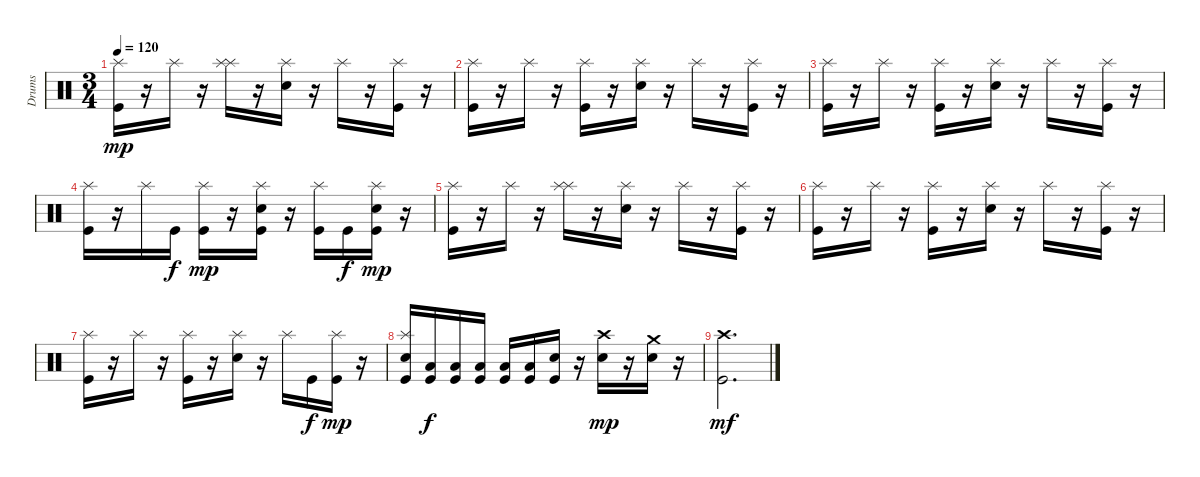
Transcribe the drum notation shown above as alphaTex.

\track ("Drums" "Drums") {instrument percussion}
\staff {score}
\articulation defaults
\ts (3 4)
\tempo 120
\clef neutral
\ks c
("Kick (hit)" "Splash (hit)").16{dy mp} r.16 "Splash (hit)".16 r.16 ("Splash (hit)" "Splash (hit)").16 r.16 ("Splash (hit)" "Snare (hit) 2").16 r.16 "Splash (hit)".16 r.16 ("Kick (hit)" "Splash (hit)").16 r.16 |
("Kick (hit)" "Splash (hit)").16 r.16 "Splash (hit)".16 r.16 ("Kick (hit)" "Splash (hit)").16 r.16 ("Splash (hit)" "Snare (hit) 2").16 r.16 "Splash (hit)".16 r.16 ("Kick (hit)" "Splash (hit)").16 r.16 |
("Kick (hit)" "Splash (hit)").16 r.16 "Splash (hit)".16 r.16 ("Kick (hit)" "Splash (hit)").16 r.16 ("Splash (hit)" "Snare (hit) 2").16 r.16 "Splash (hit)".16 r.16 ("Kick (hit)" "Splash (hit)").16 r.16 |
("Kick (hit)" "Splash (hit)").16 r.16 "Splash (hit)".16 "Kick (hit)".16{dy f} ("Kick (hit)" "Splash (hit)").16{dy mp} r.16 ("Kick (hit)" "Splash (hit)" "Snare (hit) 2").16 r.16 ("Kick (hit)" "Splash (hit)").16 "Kick (hit)".16{dy f} ("Kick (hit)" "Splash (hit)" "Snare (hit) 2").16{dy mp} r.16 |
("Kick (hit)" "Splash (hit)").16 r.16 "Splash (hit)".16 r.16 ("Splash (hit)" "Splash (hit)").16 r.16 ("Splash (hit)" "Snare (hit) 2").16 r.16 "Splash (hit)".16 r.16 ("Kick (hit)" "Splash (hit)").16 r.16 |
("Kick (hit)" "Splash (hit)").16 r.16 "Splash (hit)".16 r.16 ("Kick (hit)" "Splash (hit)").16 r.16 ("Splash (hit)" "Snare (hit) 2").16 r.16 "Splash (hit)".16 r.16 ("Kick (hit)" "Splash (hit)").16 r.16 |
("Kick (hit)" "Splash (hit)").16 r.16 "Splash (hit)".16 r.16 ("Kick (hit)" "Splash (hit)").16 r.16 ("Splash (hit)" "Snare (hit) 2").16 r.16 "Splash (hit)".16 "Kick (hit)".16{dy f} ("Kick (hit)" "Splash (hit)").16{dy mp} r.16 |
("Kick (hit)" "Splash (hit)" "Snare (hit) 2").16 ("Kick (hit)" "Low Tom (hit)").16{dy f} ("Kick (hit)" "Low Tom (hit)").16 ("Kick (hit)" "Low Tom (hit)").16 ("Kick (hit)" "Low Tom (hit)").16 ("Kick (hit)" "Low Tom (hit)").16 ("Kick (hit)" "Snare (hit) 2").16 r.16 ("Crash high (hit)" "Snare (hit) 2").16{dy mp} r.16 ("Crash medium (hit)" "Snare (hit) 2").16 r.16 |
("Kick (hit)" "Crash high (hit)").2{d dy mf}
